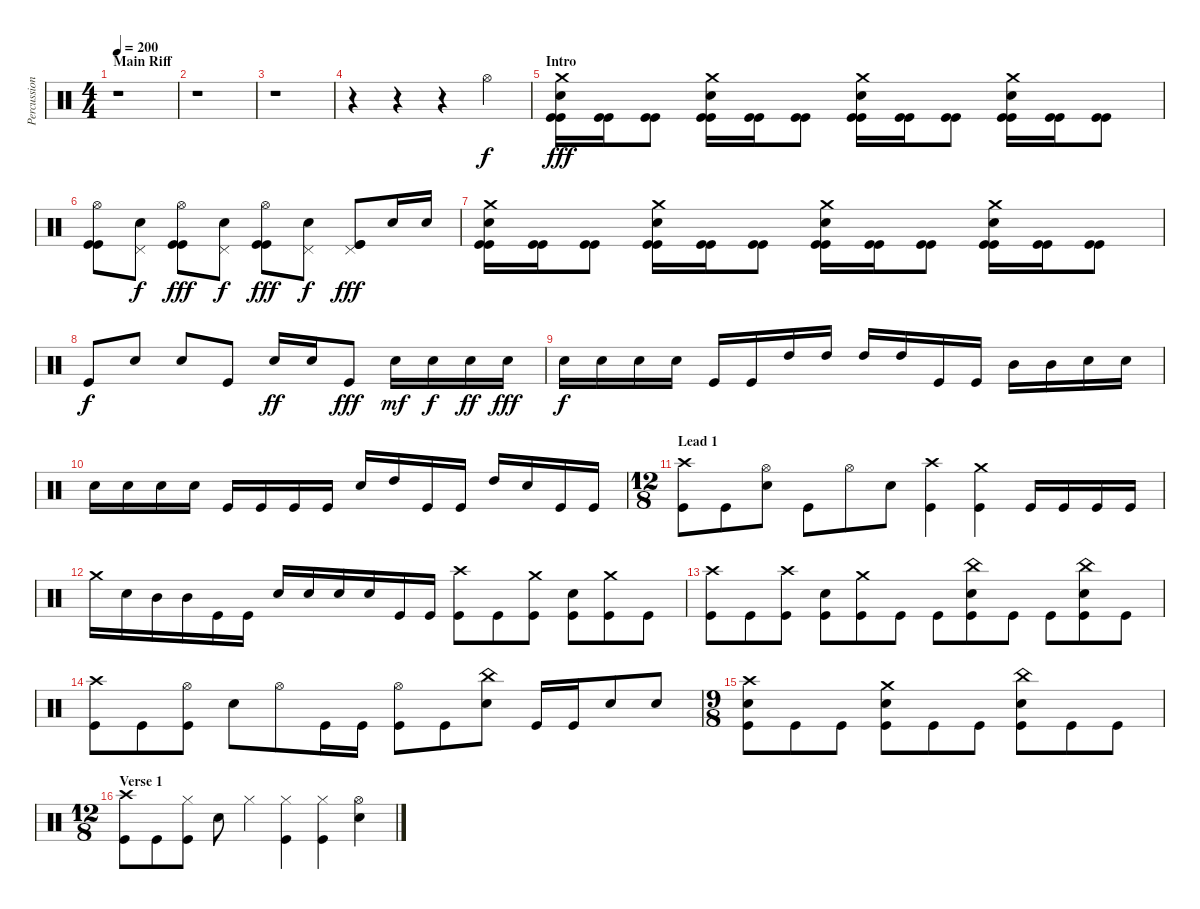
\track ("Percussion" "Percussion") {instrument percussion}
\staff {score}
\articulation defaults
\ts (4 4)
\section ("" "Main Riff")
\tempo 200
\clef neutral
\ks c
r.1{dy f} |
r.1 |
r.1 |
r.4 r.4 r.4 "Hi-Hat (open)".4 |
\section ("" "Intro")
("Crash medium (hit)" "Electric Snare (hit)" "Kick (hit)" "Kick (hit)").16{dy fff} ("Kick (hit)" "Kick (hit)").16 ("Kick (hit)" "Kick (hit)").8 ("Crash medium (hit)" "Electric Snare (hit)" "Kick (hit)" "Kick (hit)").16 ("Kick (hit)" "Kick (hit)").16 ("Kick (hit)" "Kick (hit)").8 ("Crash medium (hit)" "Electric Snare (hit)" "Kick (hit)" "Kick (hit)").16 ("Kick (hit)" "Kick (hit)").16 ("Kick (hit)" "Kick (hit)").8 ("Crash medium (hit)" "Electric Snare (hit)" "Kick (hit)" "Kick (hit)").16 ("Kick (hit)" "Kick (hit)").16 ("Kick (hit)" "Kick (hit)").8 |
("Hi-Hat (open)" "Kick (hit)" "Kick (hit)").8 ("Pedal Hi-Hat (hit)" "Electric Snare (hit)").8{dy f} ("Hi-Hat (open)" "Kick (hit)" "Kick (hit)").8{dy fff} ("Pedal Hi-Hat (hit)" "Electric Snare (hit)").8{dy f} ("Hi-Hat (open)" "Kick (hit)" "Kick (hit)").8{dy fff} ("Pedal Hi-Hat (hit)" "Electric Snare (hit)").8{dy f} ("Pedal Hi-Hat (hit)" "Kick (hit)" "Kick (hit)").8{dy fff} "Electric Snare (hit)".16 "Electric Snare (hit)".16 |
("Crash medium (hit)" "Electric Snare (hit)" "Kick (hit)" "Kick (hit)").16 ("Kick (hit)" "Kick (hit)").16 ("Kick (hit)" "Kick (hit)").8 ("Crash medium (hit)" "Electric Snare (hit)" "Kick (hit)" "Kick (hit)").16 ("Kick (hit)" "Kick (hit)").16 ("Kick (hit)" "Kick (hit)").8 ("Crash medium (hit)" "Electric Snare (hit)" "Kick (hit)" "Kick (hit)").16 ("Kick (hit)" "Kick (hit)").16 ("Kick (hit)" "Kick (hit)").8 ("Crash medium (hit)" "Electric Snare (hit)" "Kick (hit)" "Kick (hit)").16 ("Kick (hit)" "Kick (hit)").16 ("Kick (hit)" "Kick (hit)").8 |
"Kick (hit)".8{dy f} "Electric Snare (hit)".8 "Electric Snare (hit)".8 "Kick (hit)".8 "Electric Snare (hit)".16{dy ff} "Electric Snare (hit)".16 "Kick (hit)".8{dy fff} "Electric Snare (hit)".16{dy mf} "Electric Snare (hit)".16{dy f} "Electric Snare (hit)".16{dy ff} "Electric Snare (hit)".16{dy fff} |
"Electric Snare (hit)".16{dy f} "Electric Snare (hit)".16 "Electric Snare (hit)".16 "Electric Snare (hit)".16 "Kick (hit)".16 "Kick (hit)".16 "High Tom (hit)".16 "High Tom (hit)".16 "High Tom (hit)".16 "High Tom (hit)".16 "Kick (hit)".16 "Kick (hit)".16 "Mid Tom (hit)".16 "Mid Tom (hit)".16 "Electric Snare (hit)".16 "Electric Snare (hit)".16 |
"Electric Snare (hit)".16 "Electric Snare (hit)".16 "Electric Snare (hit)".16 "Electric Snare (hit)".16 "Kick (hit)".16 "Kick (hit)".16 "Kick (hit)".16 "Kick (hit)".16 "Electric Snare (hit)".16 "High Tom (hit)".16 "Kick (hit)".16 "Kick (hit)".16 "High Tom (hit)".16 "Electric Snare (hit)".16 "Kick (hit)".16 "Kick (hit)".16 |
\ts (12 8)
\section ("" "Lead 1")
("Crash high (hit)" "Kick (hit)").8 "Kick (hit)".8 ("Hi-Hat (open)" "Electric Snare (hit)").8 "Kick (hit)".8 "Hi-Hat (open)".8 "Electric Snare (hit)".8 ("Crash high (hit)" "Kick (hit)").4 ("Crash medium (hit)" "Kick (hit)").4 "Kick (hit)".16 "Kick (hit)".16 "Kick (hit)".16 "Kick (hit)".16 |
"Crash medium (hit)".16 "Electric Snare (hit)".16 "Mid Tom (hit)".16 "Mid Tom (hit)".16 "Kick (hit)".16 "Kick (hit)".16 "Electric Snare (hit)".16 "Electric Snare (hit)".16 "Electric Snare (hit)".16 "Electric Snare (hit)".16 "Kick (hit)".16 "Kick (hit)".16 ("Crash high (hit)" "Kick (hit)").8 "Kick (hit)".8 ("Crash medium (hit)" "Kick (hit)").8 ("Electric Snare (hit)" "Kick (hit)").8 ("Crash medium (hit)" "Kick (hit)").8 "Kick (hit)".8 |
("Crash high (hit)" "Kick (hit)").8 "Kick (hit)".8 ("Crash high (hit)" "Kick (hit)").8 ("Electric Snare (hit)" "Kick (hit)").8 ("Crash medium (hit)" "Kick (hit)").8 "Kick (hit)".8 "Kick (hit)".8 ("China (hit)" "Electric Snare (hit)" "Kick (hit)").8 "Kick (hit)".8 "Kick (hit)".8 ("China (hit)" "Electric Snare (hit)" "Kick (hit)").8 "Kick (hit)".8 |
("Crash high (hit)" "Kick (hit)").8 "Kick (hit)".8 ("Hi-Hat (open)" "Kick (hit)").8 "Electric Snare (hit)".8 "Hi-Hat (open)".8 "Kick (hit)".16 "Kick (hit)".16 ("Hi-Hat (open)" "Kick (hit)").8 "Kick (hit)".8 ("China (hit)" "Electric Snare (hit)").8 "Kick (hit)".16 "Kick (hit)".16 "Electric Snare (hit)".8 "Electric Snare (hit)".8 |
\ts (9 8)
("Crash high (hit)" "Electric Snare (hit)" "Kick (hit)").8 "Kick (hit)".8 "Kick (hit)".8 ("Crash medium (hit)" "Electric Snare (hit)" "Kick (hit)").8 "Kick (hit)".8 "Kick (hit)".8 ("China (hit)" "Electric Snare (hit)" "Kick (hit)").8 "Kick (hit)".8 "Kick (hit)".8 |
\ts (12 8)
\section ("" "Verse 1")
("Crash high (hit)" "Kick (hit)").8 "Kick (hit)".8 ("Hi-Hat (closed)" "Kick (hit)").8 "Electric Snare (hit)".8 "Hi-Hat (closed)".4 ("Hi-Hat (closed)" "Kick (hit)").4 ("Hi-Hat (closed)" "Kick (hit)").4 ("Hi-Hat (open)" "Electric Snare (hit)").4
